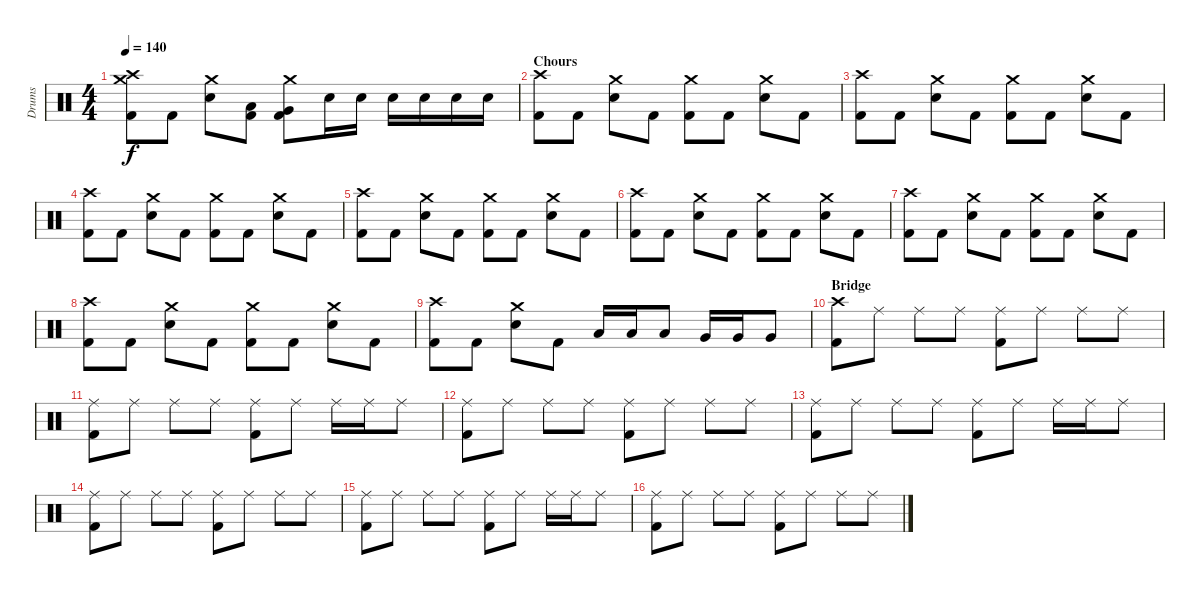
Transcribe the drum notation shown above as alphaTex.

\track ("Drums" "Drums") {instrument percussion}
\staff {score}
\articulation defaults
\ts (4 4)
\tempo 140
\clef neutral
\ks c
("Crash high (hit)" "Crash medium (hit)" "Kick (hit) 2").8{dy f} "Kick (hit) 2".8 ("Crash medium (hit)" "Snare (hit) 2").8 ("Low Tom (hit)" "Kick (hit) 2").8 ("Crash medium (hit)" "Very Low Tom (hit)" "Kick (hit) 2").8 "Snare (hit) 2".16 "Snare (hit) 2".16 "Snare (hit) 2".16 "Snare (hit) 2".16 "Snare (hit) 2".16 "Snare (hit) 2".16 |
\section ("" "Chours")
("Crash high (hit)" "Kick (hit) 2").8 "Kick (hit) 2".8 ("Crash medium (hit)" "Snare (hit) 2").8 "Kick (hit) 2".8 ("Crash medium (hit)" "Kick (hit) 2").8 "Kick (hit) 2".8 ("Crash medium (hit)" "Snare (hit) 2").8 "Kick (hit) 2".8 |
("Crash high (hit)" "Kick (hit) 2").8 "Kick (hit) 2".8 ("Crash medium (hit)" "Snare (hit) 2").8 "Kick (hit) 2".8 ("Crash medium (hit)" "Kick (hit) 2").8 "Kick (hit) 2".8 ("Crash medium (hit)" "Snare (hit) 2").8 "Kick (hit) 2".8 |
("Crash high (hit)" "Kick (hit) 2").8 "Kick (hit) 2".8 ("Crash medium (hit)" "Snare (hit) 2").8 "Kick (hit) 2".8 ("Crash medium (hit)" "Kick (hit) 2").8 "Kick (hit) 2".8 ("Crash medium (hit)" "Snare (hit) 2").8 "Kick (hit) 2".8 |
("Crash high (hit)" "Kick (hit) 2").8 "Kick (hit) 2".8 ("Crash medium (hit)" "Snare (hit) 2").8 "Kick (hit) 2".8 ("Crash medium (hit)" "Kick (hit) 2").8 "Kick (hit) 2".8 ("Crash medium (hit)" "Snare (hit) 2").8 "Kick (hit) 2".8 |
("Crash high (hit)" "Kick (hit) 2").8 "Kick (hit) 2".8 ("Crash medium (hit)" "Snare (hit) 2").8 "Kick (hit) 2".8 ("Crash medium (hit)" "Kick (hit) 2").8 "Kick (hit) 2".8 ("Crash medium (hit)" "Snare (hit) 2").8 "Kick (hit) 2".8 |
("Crash high (hit)" "Kick (hit) 2").8 "Kick (hit) 2".8 ("Crash medium (hit)" "Snare (hit) 2").8 "Kick (hit) 2".8 ("Crash medium (hit)" "Kick (hit) 2").8 "Kick (hit) 2".8 ("Crash medium (hit)" "Snare (hit) 2").8 "Kick (hit) 2".8 |
("Crash high (hit)" "Kick (hit) 2").8 "Kick (hit) 2".8 ("Crash medium (hit)" "Snare (hit) 2").8 "Kick (hit) 2".8 ("Crash medium (hit)" "Kick (hit) 2").8 "Kick (hit) 2".8 ("Crash medium (hit)" "Snare (hit) 2").8 "Kick (hit) 2".8 |
("Crash high (hit)" "Kick (hit) 2").8 "Kick (hit) 2".8 ("Crash medium (hit)" "Snare (hit) 2").8 "Kick (hit) 2".8 "Low Tom (hit)".16 "Low Tom (hit)".16 "Low Tom (hit)".8 "Very Low Tom (hit)".16 "Very Low Tom (hit)".16 "Very Low Tom (hit)".8 |
\section ("" "Bridge")
("Crash high (hit)" "Kick (hit) 2").8 "Ride (middle)".8 "Ride (middle)".8 "Ride (middle)".8 ("Ride (middle)" "Kick (hit) 2").8 "Ride (middle)".8 "Ride (middle)".8 "Ride (middle)".8 |
("Ride (middle)" "Kick (hit) 2").8 "Ride (middle)".8 "Ride (middle)".8 "Ride (middle)".8 ("Ride (middle)" "Kick (hit) 2").8 "Ride (middle)".8 "Ride (middle)".16 "Ride (middle)".16 "Ride (middle)".8 |
("Ride (middle)" "Kick (hit) 2").8 "Ride (middle)".8 "Ride (middle)".8 "Ride (middle)".8 ("Ride (middle)" "Kick (hit) 2").8 "Ride (middle)".8 "Ride (middle)".8 "Ride (middle)".8 |
("Ride (middle)" "Kick (hit) 2").8 "Ride (middle)".8 "Ride (middle)".8 "Ride (middle)".8 ("Ride (middle)" "Kick (hit) 2").8 "Ride (middle)".8 "Ride (middle)".16 "Ride (middle)".16 "Ride (middle)".8 |
("Ride (middle)" "Kick (hit) 2").8 "Ride (middle)".8 "Ride (middle)".8 "Ride (middle)".8 ("Ride (middle)" "Kick (hit) 2").8 "Ride (middle)".8 "Ride (middle)".8 "Ride (middle)".8 |
("Ride (middle)" "Kick (hit) 2").8 "Ride (middle)".8 "Ride (middle)".8 "Ride (middle)".8 ("Ride (middle)" "Kick (hit) 2").8 "Ride (middle)".8 "Ride (middle)".16 "Ride (middle)".16 "Ride (middle)".8 |
("Ride (middle)" "Kick (hit) 2").8 "Ride (middle)".8 "Ride (middle)".8 "Ride (middle)".8 ("Ride (middle)" "Kick (hit) 2").8 "Ride (middle)".8 "Ride (middle)".8 "Ride (middle)".8
